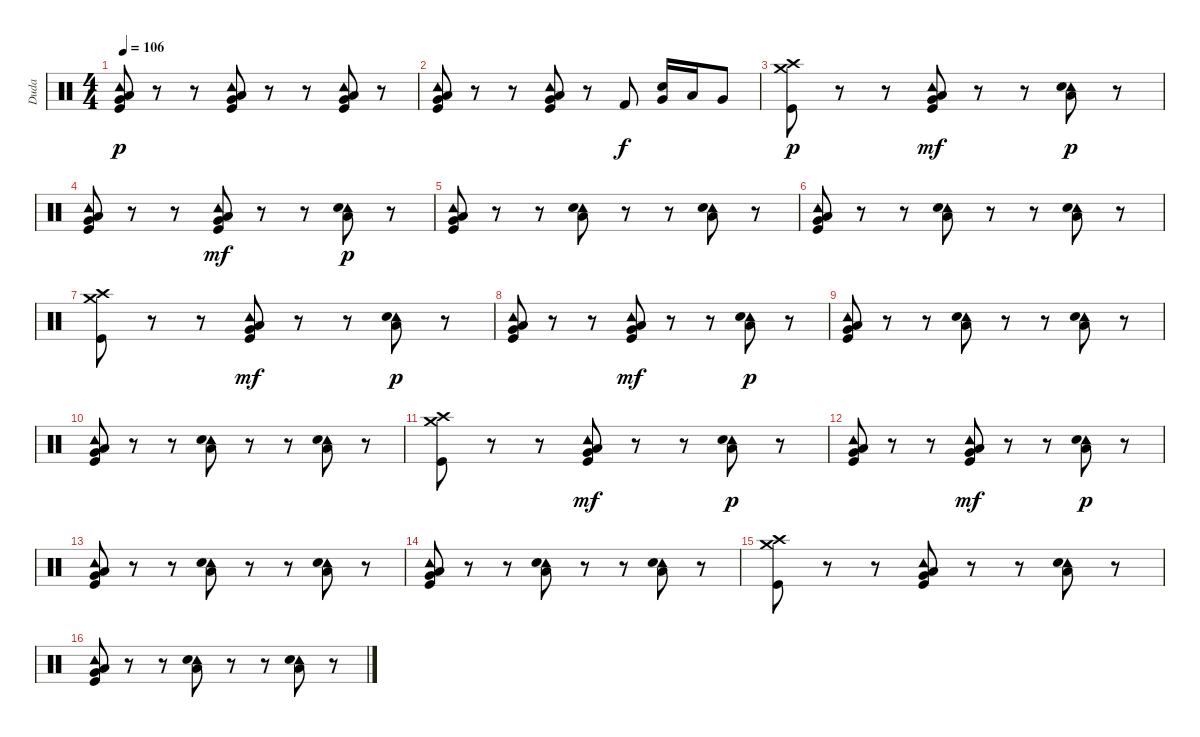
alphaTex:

\track ("Duda" "Duda") {instrument percussion}
\staff {score}
\articulation defaults
\ts (4 4)
\tempo 106
\clef neutral
\ks c
("Tambourine (hit)" "Low Floor Tom (hit)" "Very Low Tom (hit)" "Kick (hit)").8{dy p} r.8 r.8 ("Tambourine (hit)" "Low Floor Tom (hit)" "Very Low Tom (hit)" "Kick (hit)").8 r.8 r.8 ("Tambourine (hit)" "Low Floor Tom (hit)" "Very Low Tom (hit)" "Kick (hit)").8 r.8 |
("Tambourine (hit)" "Low Floor Tom (hit)" "Very Low Tom (hit)" "Kick (hit)").8 r.8 r.8 ("Tambourine (hit)" "Low Floor Tom (hit)" "Very Low Tom (hit)" "Kick (hit)").8 r.8 "Kick (hit) 2".8{dy f} ("Snare (hit) 2" "Very Low Tom (hit)").16 "Low Tom (hit)".16 "Very Low Tom (hit)".8 |
("Crash medium (hit)" "Crash high (hit)" "Kick (hit)").8{dy p} r.8 r.8 ("Tambourine (hit)" "Very Low Tom (hit)" "Low Floor Tom (hit)" "Kick (hit)").8{dy mf} r.8 r.8 ("Tambourine (hit)" "Low Floor Tom (hit)" "Snare (hit) 2").8{dy p} r.8 |
("Tambourine (hit)" "Very Low Tom (hit)" "Low Floor Tom (hit)" "Kick (hit)").8 r.8 r.8 ("Tambourine (hit)" "Very Low Tom (hit)" "Low Floor Tom (hit)" "Kick (hit)").8{dy mf} r.8 r.8 ("Tambourine (hit)" "Low Floor Tom (hit)" "Snare (hit) 2").8{dy p} r.8 |
("Tambourine (hit)" "Low Floor Tom (hit)" "Very Low Tom (hit)" "Kick (hit)").8 r.8 r.8 ("Tambourine (hit)" "Low Floor Tom (hit)" "Snare (hit) 2").8 r.8 r.8 ("Tambourine (hit)" "Low Floor Tom (hit)" "Snare (hit) 2").8 r.8 |
("Tambourine (hit)" "Very Low Tom (hit)" "Low Floor Tom (hit)" "Kick (hit)").8 r.8 r.8 ("Tambourine (hit)" "Low Floor Tom (hit)" "Snare (hit) 2").8 r.8 r.8 ("Tambourine (hit)" "Low Floor Tom (hit)" "Snare (hit) 2").8 r.8 |
("Crash medium (hit)" "Crash high (hit)" "Kick (hit)").8 r.8 r.8 ("Tambourine (hit)" "Very Low Tom (hit)" "Low Floor Tom (hit)" "Kick (hit)").8{dy mf} r.8 r.8 ("Tambourine (hit)" "Low Floor Tom (hit)" "Snare (hit) 2").8{dy p} r.8 |
("Tambourine (hit)" "Very Low Tom (hit)" "Low Floor Tom (hit)" "Kick (hit)").8 r.8 r.8 ("Tambourine (hit)" "Very Low Tom (hit)" "Low Floor Tom (hit)" "Kick (hit)").8{dy mf} r.8 r.8 ("Tambourine (hit)" "Low Floor Tom (hit)" "Snare (hit) 2").8{dy p} r.8 |
("Tambourine (hit)" "Low Floor Tom (hit)" "Very Low Tom (hit)" "Kick (hit)").8 r.8 r.8 ("Tambourine (hit)" "Low Floor Tom (hit)" "Snare (hit) 2").8 r.8 r.8 ("Tambourine (hit)" "Low Floor Tom (hit)" "Snare (hit) 2").8 r.8 |
("Tambourine (hit)" "Very Low Tom (hit)" "Low Floor Tom (hit)" "Kick (hit)").8 r.8 r.8 ("Tambourine (hit)" "Low Floor Tom (hit)" "Snare (hit) 2").8 r.8 r.8 ("Tambourine (hit)" "Low Floor Tom (hit)" "Snare (hit) 2").8 r.8 |
("Crash medium (hit)" "Crash high (hit)" "Kick (hit)").8 r.8 r.8 ("Tambourine (hit)" "Very Low Tom (hit)" "Low Floor Tom (hit)" "Kick (hit)").8{dy mf} r.8 r.8 ("Tambourine (hit)" "Low Floor Tom (hit)" "Snare (hit) 2").8{dy p} r.8 |
("Tambourine (hit)" "Very Low Tom (hit)" "Low Floor Tom (hit)" "Kick (hit)").8 r.8 r.8 ("Tambourine (hit)" "Very Low Tom (hit)" "Low Floor Tom (hit)" "Kick (hit)").8{dy mf} r.8 r.8 ("Tambourine (hit)" "Low Floor Tom (hit)" "Snare (hit) 2").8{dy p} r.8 |
("Tambourine (hit)" "Low Floor Tom (hit)" "Very Low Tom (hit)" "Kick (hit)").8 r.8 r.8 ("Tambourine (hit)" "Low Floor Tom (hit)" "Snare (hit) 2").8 r.8 r.8 ("Tambourine (hit)" "Low Floor Tom (hit)" "Snare (hit) 2").8 r.8 |
("Tambourine (hit)" "Very Low Tom (hit)" "Low Floor Tom (hit)" "Kick (hit)").8 r.8 r.8 ("Tambourine (hit)" "Low Floor Tom (hit)" "Snare (hit) 2").8 r.8 r.8 ("Tambourine (hit)" "Low Floor Tom (hit)" "Snare (hit) 2").8 r.8 |
("Crash medium (hit)" "Crash high (hit)" "Kick (hit)").8 r.8 r.8 ("Tambourine (hit)" "Low Floor Tom (hit)" "Very Low Tom (hit)" "Kick (hit)").8 r.8 r.8 ("Tambourine (hit)" "Low Floor Tom (hit)" "Snare (hit) 2").8 r.8 |
("Tambourine (hit)" "Very Low Tom (hit)" "Low Floor Tom (hit)" "Kick (hit)").8 r.8 r.8 ("Tambourine (hit)" "Low Floor Tom (hit)" "Snare (hit) 2").8 r.8 r.8 ("Tambourine (hit)" "Low Floor Tom (hit)" "Snare (hit) 2").8 r.8
